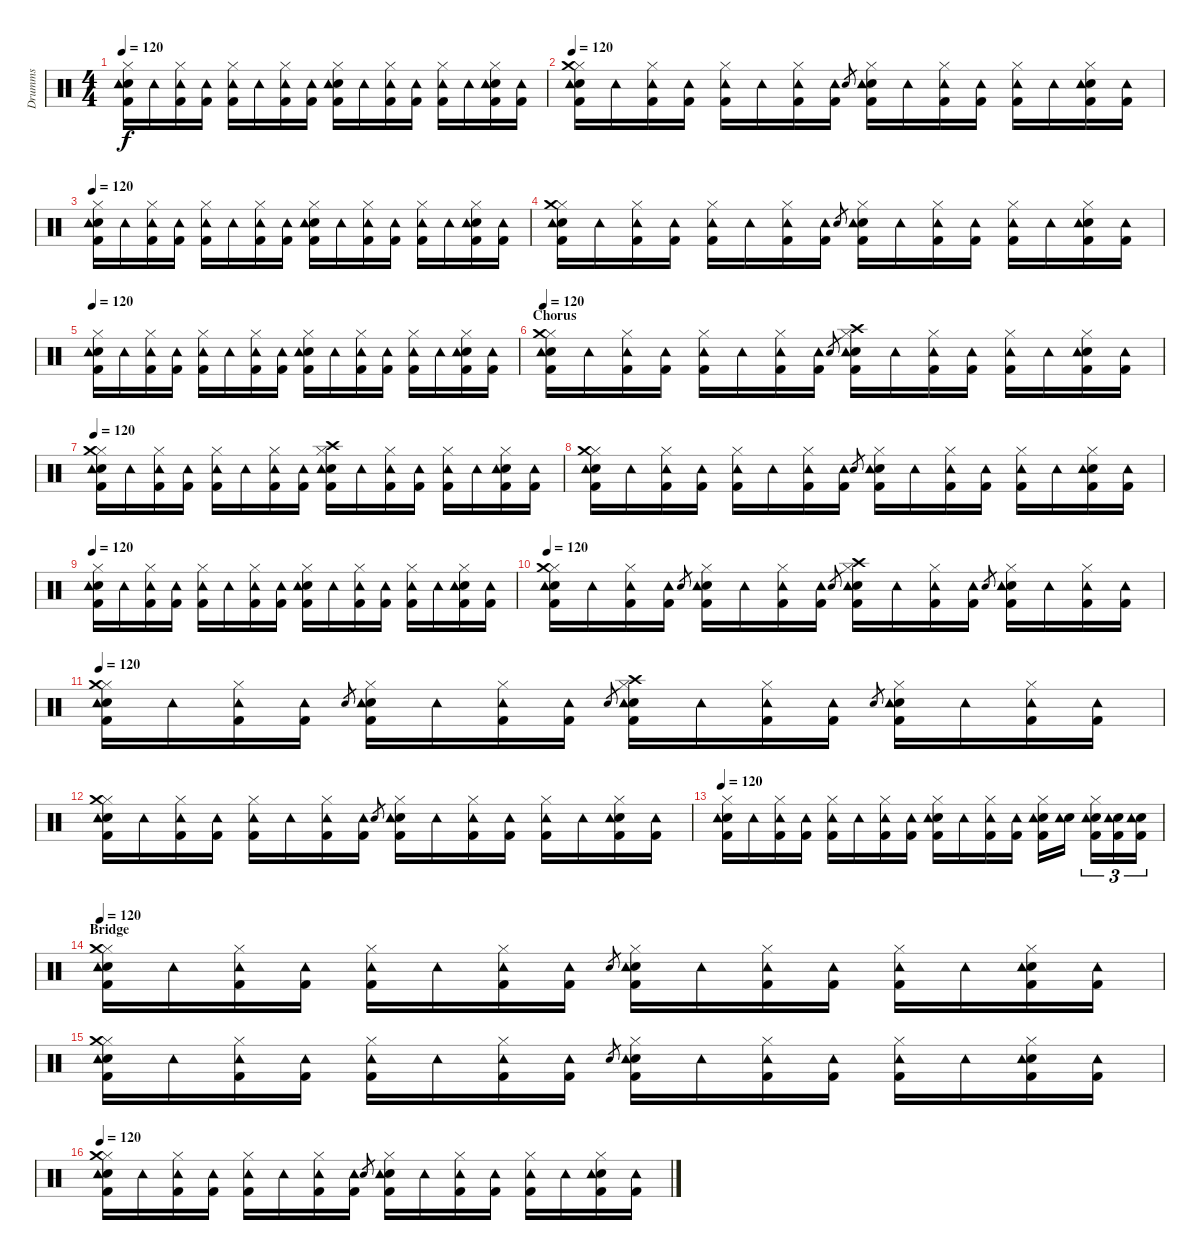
\track ("Drumms" "Drumms") {instrument percussion}
\staff {score}
\articulation defaults
\ts (4 4)
\tempo 120
\clef neutral
\ks c
("Hi-Hat (closed)" "Snare (hit) 2" "Kick (hit) 2" "Tambourine (hit)").16{dy f} "Tambourine (hit)".16 ("Hi-Hat (closed)" "Kick (hit) 2" "Tambourine (hit)").16 ("Kick (hit) 2" "Tambourine (hit)").16 ("Hi-Hat (closed)" "Kick (hit) 2" "Tambourine (hit)").16 "Tambourine (hit)".16 ("Hi-Hat (closed)" "Kick (hit) 2" "Tambourine (hit)").16 ("Kick (hit) 2" "Tambourine (hit)").16 ("Hi-Hat (closed)" "Snare (hit) 2" "Kick (hit) 2" "Tambourine (hit)").16 "Tambourine (hit)".16 ("Hi-Hat (closed)" "Kick (hit) 2" "Tambourine (hit)").16 ("Kick (hit) 2" "Tambourine (hit)").16 ("Hi-Hat (closed)" "Kick (hit) 2" "Tambourine (hit)").16 "Tambourine (hit)".16 ("Hi-Hat (closed)" "Snare (hit) 2" "Kick (hit) 2" "Tambourine (hit)").16 ("Kick (hit) 2" "Tambourine (hit)").16 |
\tempo 120
("Hi-Hat (closed)" "Snare (hit) 2" "Crash medium (hit)" "Kick (hit) 2" "Tambourine (hit)").16 "Tambourine (hit)".16 ("Hi-Hat (closed)" "Kick (hit) 2" "Tambourine (hit)").16 ("Kick (hit) 2" "Tambourine (hit)").16 ("Hi-Hat (closed)" "Kick (hit) 2" "Tambourine (hit)").16 "Tambourine (hit)".16 ("Hi-Hat (closed)" "Kick (hit) 2" "Tambourine (hit)").16 ("Kick (hit) 2" "Tambourine (hit)").16 "Snare (hit) 2".8{gr} ("Hi-Hat (closed)" "Snare (hit) 2" "Kick (hit) 2" "Tambourine (hit)").16 "Tambourine (hit)".16 ("Hi-Hat (closed)" "Kick (hit) 2" "Tambourine (hit)").16 ("Kick (hit) 2" "Tambourine (hit)").16 ("Hi-Hat (closed)" "Kick (hit) 2" "Tambourine (hit)").16 "Tambourine (hit)".16 ("Hi-Hat (closed)" "Snare (hit) 2" "Kick (hit) 2" "Tambourine (hit)").16 ("Kick (hit) 2" "Tambourine (hit)").16 |
\tempo 120
("Hi-Hat (closed)" "Snare (hit) 2" "Kick (hit) 2" "Tambourine (hit)").16 "Tambourine (hit)".16 ("Hi-Hat (closed)" "Kick (hit) 2" "Tambourine (hit)").16 ("Kick (hit) 2" "Tambourine (hit)").16 ("Hi-Hat (closed)" "Kick (hit) 2" "Tambourine (hit)").16 "Tambourine (hit)".16 ("Hi-Hat (closed)" "Kick (hit) 2" "Tambourine (hit)").16 ("Kick (hit) 2" "Tambourine (hit)").16 ("Hi-Hat (closed)" "Snare (hit) 2" "Kick (hit) 2" "Tambourine (hit)").16 "Tambourine (hit)".16 ("Hi-Hat (closed)" "Kick (hit) 2" "Tambourine (hit)").16 ("Kick (hit) 2" "Tambourine (hit)").16 ("Hi-Hat (closed)" "Kick (hit) 2" "Tambourine (hit)").16 "Tambourine (hit)".16 ("Hi-Hat (closed)" "Snare (hit) 2" "Kick (hit) 2" "Tambourine (hit)").16 ("Kick (hit) 2" "Tambourine (hit)").16 |
("Hi-Hat (closed)" "Snare (hit) 2" "Crash medium (hit)" "Kick (hit) 2" "Tambourine (hit)").16 "Tambourine (hit)".16 ("Hi-Hat (closed)" "Kick (hit) 2" "Tambourine (hit)").16 ("Kick (hit) 2" "Tambourine (hit)").16 ("Hi-Hat (closed)" "Kick (hit) 2" "Tambourine (hit)").16 "Tambourine (hit)".16 ("Hi-Hat (closed)" "Kick (hit) 2" "Tambourine (hit)").16 ("Kick (hit) 2" "Tambourine (hit)").16 "Snare (hit) 2".8{gr} ("Hi-Hat (closed)" "Snare (hit) 2" "Kick (hit) 2" "Tambourine (hit)").16 "Tambourine (hit)".16 ("Hi-Hat (closed)" "Kick (hit) 2" "Tambourine (hit)").16 ("Kick (hit) 2" "Tambourine (hit)").16 ("Hi-Hat (closed)" "Kick (hit) 2" "Tambourine (hit)").16 "Tambourine (hit)".16 ("Hi-Hat (closed)" "Snare (hit) 2" "Kick (hit) 2" "Tambourine (hit)").16 ("Kick (hit) 2" "Tambourine (hit)").16 |
\tempo 120
("Hi-Hat (closed)" "Snare (hit) 2" "Kick (hit) 2" "Tambourine (hit)").16 "Tambourine (hit)".16 ("Hi-Hat (closed)" "Kick (hit) 2" "Tambourine (hit)").16 ("Kick (hit) 2" "Tambourine (hit)").16 ("Hi-Hat (closed)" "Kick (hit) 2" "Tambourine (hit)").16 "Tambourine (hit)".16 ("Hi-Hat (closed)" "Kick (hit) 2" "Tambourine (hit)").16 ("Kick (hit) 2" "Tambourine (hit)").16 ("Hi-Hat (closed)" "Snare (hit) 2" "Kick (hit) 2" "Tambourine (hit)").16 "Tambourine (hit)".16 ("Hi-Hat (closed)" "Kick (hit) 2" "Tambourine (hit)").16 ("Kick (hit) 2" "Tambourine (hit)").16 ("Hi-Hat (closed)" "Kick (hit) 2" "Tambourine (hit)").16 "Tambourine (hit)".16 ("Hi-Hat (closed)" "Snare (hit) 2" "Kick (hit) 2" "Tambourine (hit)").16 ("Kick (hit) 2" "Tambourine (hit)").16 |
\section ("" "Chorus")
\tempo 120
("Hi-Hat (closed)" "Snare (hit) 2" "Crash medium (hit)" "Kick (hit) 2" "Tambourine (hit)").16 "Tambourine (hit)".16 ("Hi-Hat (closed)" "Kick (hit) 2" "Tambourine (hit)").16 ("Kick (hit) 2" "Tambourine (hit)").16 ("Hi-Hat (closed)" "Kick (hit) 2" "Tambourine (hit)").16 "Tambourine (hit)".16 ("Hi-Hat (closed)" "Kick (hit) 2" "Tambourine (hit)").16 ("Kick (hit) 2" "Tambourine (hit)").16 "Snare (hit) 2".8{gr} ("Hi-Hat (closed)" "Snare (hit) 2" "Crash high (hit)" "Kick (hit) 2" "Tambourine (hit)").16 "Tambourine (hit)".16 ("Hi-Hat (closed)" "Kick (hit) 2" "Tambourine (hit)").16 ("Kick (hit) 2" "Tambourine (hit)").16 ("Hi-Hat (closed)" "Kick (hit) 2" "Tambourine (hit)").16 "Tambourine (hit)".16 ("Hi-Hat (closed)" "Snare (hit) 2" "Kick (hit) 2" "Tambourine (hit)").16 ("Kick (hit) 2" "Tambourine (hit)").16 |
\tempo 120
("Hi-Hat (closed)" "Snare (hit) 2" "Crash medium (hit)" "Kick (hit) 2" "Tambourine (hit)").16 "Tambourine (hit)".16 ("Hi-Hat (closed)" "Kick (hit) 2" "Tambourine (hit)").16 ("Kick (hit) 2" "Tambourine (hit)").16 ("Hi-Hat (closed)" "Kick (hit) 2" "Tambourine (hit)").16 "Tambourine (hit)".16 ("Hi-Hat (closed)" "Kick (hit) 2" "Tambourine (hit)").16 ("Kick (hit) 2" "Tambourine (hit)").16 ("Hi-Hat (closed)" "Snare (hit) 2" "Crash high (hit)" "Kick (hit) 2" "Tambourine (hit)").16 "Tambourine (hit)".16 ("Hi-Hat (closed)" "Kick (hit) 2" "Tambourine (hit)").16 ("Kick (hit) 2" "Tambourine (hit)").16 ("Hi-Hat (closed)" "Kick (hit) 2" "Tambourine (hit)").16 "Tambourine (hit)".16 ("Hi-Hat (closed)" "Snare (hit) 2" "Kick (hit) 2" "Tambourine (hit)").16 ("Kick (hit) 2" "Tambourine (hit)").16 |
("Hi-Hat (closed)" "Snare (hit) 2" "Crash medium (hit)" "Kick (hit) 2" "Tambourine (hit)").16 "Tambourine (hit)".16 ("Hi-Hat (closed)" "Kick (hit) 2" "Tambourine (hit)").16 ("Kick (hit) 2" "Tambourine (hit)").16 ("Hi-Hat (closed)" "Kick (hit) 2" "Tambourine (hit)").16 "Tambourine (hit)".16 ("Hi-Hat (closed)" "Kick (hit) 2" "Tambourine (hit)").16 ("Kick (hit) 2" "Tambourine (hit)").16 "Snare (hit) 2".8{gr} ("Hi-Hat (closed)" "Snare (hit) 2" "Kick (hit) 2" "Tambourine (hit)").16 "Tambourine (hit)".16 ("Hi-Hat (closed)" "Kick (hit) 2" "Tambourine (hit)").16 ("Kick (hit) 2" "Tambourine (hit)").16 ("Hi-Hat (closed)" "Kick (hit) 2" "Tambourine (hit)").16 "Tambourine (hit)".16 ("Hi-Hat (closed)" "Snare (hit) 2" "Kick (hit) 2" "Tambourine (hit)").16 ("Kick (hit) 2" "Tambourine (hit)").16 |
\tempo 120
("Hi-Hat (closed)" "Snare (hit) 2" "Kick (hit) 2" "Tambourine (hit)").16 "Tambourine (hit)".16 ("Hi-Hat (closed)" "Kick (hit) 2" "Tambourine (hit)").16 ("Kick (hit) 2" "Tambourine (hit)").16 ("Hi-Hat (closed)" "Kick (hit) 2" "Tambourine (hit)").16 "Tambourine (hit)".16 ("Hi-Hat (closed)" "Kick (hit) 2" "Tambourine (hit)").16 ("Kick (hit) 2" "Tambourine (hit)").16 ("Hi-Hat (closed)" "Snare (hit) 2" "Kick (hit) 2" "Tambourine (hit)").16 "Tambourine (hit)".16 ("Hi-Hat (closed)" "Kick (hit) 2" "Tambourine (hit)").16 ("Kick (hit) 2" "Tambourine (hit)").16 ("Hi-Hat (closed)" "Kick (hit) 2" "Tambourine (hit)").16 "Tambourine (hit)".16 ("Hi-Hat (closed)" "Snare (hit) 2" "Kick (hit) 2" "Tambourine (hit)").16 ("Kick (hit) 2" "Tambourine (hit)").16 |
\tempo 120
("Hi-Hat (closed)" "Snare (hit) 2" "Crash medium (hit)" "Kick (hit) 2" "Tambourine (hit)").16 "Tambourine (hit)".16 ("Hi-Hat (closed)" "Kick (hit) 2" "Tambourine (hit)").16 ("Kick (hit) 2" "Tambourine (hit)").16 "Snare (hit) 2".8{gr} ("Hi-Hat (closed)" "Snare (hit) 2" "Kick (hit) 2" "Tambourine (hit)").16 "Tambourine (hit)".16 ("Hi-Hat (closed)" "Kick (hit) 2" "Tambourine (hit)").16 ("Kick (hit) 2" "Tambourine (hit)").16 "Snare (hit) 2".8{gr} ("Hi-Hat (closed)" "Snare (hit) 2" "Crash high (hit)" "Kick (hit) 2" "Tambourine (hit)").16 "Tambourine (hit)".16 ("Hi-Hat (closed)" "Kick (hit) 2" "Tambourine (hit)").16 ("Kick (hit) 2" "Tambourine (hit)").16 "Snare (hit) 2".8{gr} ("Hi-Hat (closed)" "Snare (hit) 2" "Kick (hit) 2" "Tambourine (hit)").16 "Tambourine (hit)".16 ("Hi-Hat (closed)" "Kick (hit) 2" "Tambourine (hit)").16 ("Kick (hit) 2" "Tambourine (hit)").16 |
\tempo 120
("Hi-Hat (closed)" "Snare (hit) 2" "Crash medium (hit)" "Kick (hit) 2" "Tambourine (hit)").16 "Tambourine (hit)".16 ("Hi-Hat (closed)" "Kick (hit) 2" "Tambourine (hit)").16 ("Kick (hit) 2" "Tambourine (hit)").16 "Snare (hit) 2".8{gr} ("Hi-Hat (closed)" "Snare (hit) 2" "Kick (hit) 2" "Tambourine (hit)").16 "Tambourine (hit)".16 ("Hi-Hat (closed)" "Kick (hit) 2" "Tambourine (hit)").16 ("Kick (hit) 2" "Tambourine (hit)").16 "Snare (hit) 2".8{gr} ("Hi-Hat (closed)" "Snare (hit) 2" "Crash high (hit)" "Kick (hit) 2" "Tambourine (hit)").16 "Tambourine (hit)".16 ("Hi-Hat (closed)" "Kick (hit) 2" "Tambourine (hit)").16 ("Kick (hit) 2" "Tambourine (hit)").16 "Snare (hit) 2".8{gr} ("Hi-Hat (closed)" "Snare (hit) 2" "Kick (hit) 2" "Tambourine (hit)").16 "Tambourine (hit)".16 ("Hi-Hat (closed)" "Kick (hit) 2" "Tambourine (hit)").16 ("Kick (hit) 2" "Tambourine (hit)").16 |
("Hi-Hat (closed)" "Snare (hit) 2" "Crash medium (hit)" "Kick (hit) 2" "Tambourine (hit)").16 "Tambourine (hit)".16 ("Hi-Hat (closed)" "Kick (hit) 2" "Tambourine (hit)").16 ("Kick (hit) 2" "Tambourine (hit)").16 ("Hi-Hat (closed)" "Kick (hit) 2" "Tambourine (hit)").16 "Tambourine (hit)".16 ("Hi-Hat (closed)" "Kick (hit) 2" "Tambourine (hit)").16 ("Kick (hit) 2" "Tambourine (hit)").16 "Snare (hit) 2".8{gr} ("Hi-Hat (closed)" "Snare (hit) 2" "Kick (hit) 2" "Tambourine (hit)").16 "Tambourine (hit)".16 ("Hi-Hat (closed)" "Kick (hit) 2" "Tambourine (hit)").16 ("Kick (hit) 2" "Tambourine (hit)").16 ("Hi-Hat (closed)" "Kick (hit) 2" "Tambourine (hit)").16 "Tambourine (hit)".16 ("Hi-Hat (closed)" "Snare (hit) 2" "Kick (hit) 2" "Tambourine (hit)").16 ("Kick (hit) 2" "Tambourine (hit)").16 |
\tempo 120
("Hi-Hat (closed)" "Snare (hit) 2" "Kick (hit) 2" "Tambourine (hit)").16 "Tambourine (hit)".16 ("Hi-Hat (closed)" "Kick (hit) 2" "Tambourine (hit)").16 ("Kick (hit) 2" "Tambourine (hit)").16 ("Hi-Hat (closed)" "Kick (hit) 2" "Tambourine (hit)").16 "Tambourine (hit)".16 ("Hi-Hat (closed)" "Kick (hit) 2" "Tambourine (hit)").16 ("Kick (hit) 2" "Tambourine (hit)").16 ("Hi-Hat (closed)" "Snare (hit) 2" "Kick (hit) 2" "Tambourine (hit)").16 "Tambourine (hit)".16 ("Hi-Hat (closed)" "Kick (hit) 2" "Tambourine (hit)").16 ("Kick (hit) 2" "Tambourine (hit)").16 ("Hi-Hat (closed)" "Snare (hit) 2" "Kick (hit) 2" "Tambourine (hit)").16 ("Snare (hit) 2" "Tambourine (hit)").16 ("Hi-Hat (closed)" "Snare (hit) 2" "Kick (hit) 2" "Tambourine (hit)").16{tu (3 2)} ("Snare (hit) 2" "Kick (hit) 2" "Tambourine (hit)").16{tu (3 2)} ("Snare (hit) 2" "Kick (hit) 2" "Tambourine (hit)").16{tu (3 2)} |
\section ("" "Bridge")
\tempo 120
("Hi-Hat (closed)" "Snare (hit) 2" "Crash medium (hit)" "Kick (hit) 2" "Tambourine (hit)").16 "Tambourine (hit)".16 ("Hi-Hat (closed)" "Kick (hit) 2" "Tambourine (hit)").16 ("Kick (hit) 2" "Tambourine (hit)").16 ("Hi-Hat (closed)" "Kick (hit) 2" "Tambourine (hit)").16 "Tambourine (hit)".16 ("Hi-Hat (closed)" "Kick (hit) 2" "Tambourine (hit)").16 ("Kick (hit) 2" "Tambourine (hit)").16 "Snare (hit) 2".8{gr} ("Hi-Hat (closed)" "Snare (hit) 2" "Kick (hit) 2" "Tambourine (hit)").16 "Tambourine (hit)".16 ("Hi-Hat (closed)" "Kick (hit) 2" "Tambourine (hit)").16 ("Kick (hit) 2" "Tambourine (hit)").16 ("Hi-Hat (closed)" "Kick (hit) 2" "Tambourine (hit)").16 "Tambourine (hit)".16 ("Hi-Hat (closed)" "Snare (hit) 2" "Kick (hit) 2" "Tambourine (hit)").16 ("Kick (hit) 2" "Tambourine (hit)").16 |
("Hi-Hat (closed)" "Snare (hit) 2" "Crash medium (hit)" "Kick (hit) 2" "Tambourine (hit)").16 "Tambourine (hit)".16 ("Hi-Hat (closed)" "Kick (hit) 2" "Tambourine (hit)").16 ("Kick (hit) 2" "Tambourine (hit)").16 ("Hi-Hat (closed)" "Kick (hit) 2" "Tambourine (hit)").16 "Tambourine (hit)".16 ("Hi-Hat (closed)" "Kick (hit) 2" "Tambourine (hit)").16 ("Kick (hit) 2" "Tambourine (hit)").16 "Snare (hit) 2".8{gr} ("Hi-Hat (closed)" "Snare (hit) 2" "Kick (hit) 2" "Tambourine (hit)").16 "Tambourine (hit)".16 ("Hi-Hat (closed)" "Kick (hit) 2" "Tambourine (hit)").16 ("Kick (hit) 2" "Tambourine (hit)").16 ("Hi-Hat (closed)" "Kick (hit) 2" "Tambourine (hit)").16 "Tambourine (hit)".16 ("Hi-Hat (closed)" "Snare (hit) 2" "Kick (hit) 2" "Tambourine (hit)").16 ("Kick (hit) 2" "Tambourine (hit)").16 |
\tempo 120
("Hi-Hat (closed)" "Snare (hit) 2" "Crash medium (hit)" "Kick (hit) 2" "Tambourine (hit)").16 "Tambourine (hit)".16 ("Hi-Hat (closed)" "Kick (hit) 2" "Tambourine (hit)").16 ("Kick (hit) 2" "Tambourine (hit)").16 ("Hi-Hat (closed)" "Kick (hit) 2" "Tambourine (hit)").16 "Tambourine (hit)".16 ("Hi-Hat (closed)" "Kick (hit) 2" "Tambourine (hit)").16 ("Kick (hit) 2" "Tambourine (hit)").16 "Snare (hit) 2".8{gr} ("Hi-Hat (closed)" "Snare (hit) 2" "Kick (hit) 2" "Tambourine (hit)").16 "Tambourine (hit)".16 ("Hi-Hat (closed)" "Kick (hit) 2" "Tambourine (hit)").16 ("Kick (hit) 2" "Tambourine (hit)").16 ("Hi-Hat (closed)" "Kick (hit) 2" "Tambourine (hit)").16 "Tambourine (hit)".16 ("Hi-Hat (closed)" "Snare (hit) 2" "Kick (hit) 2" "Tambourine (hit)").16 ("Kick (hit) 2" "Tambourine (hit)").16
